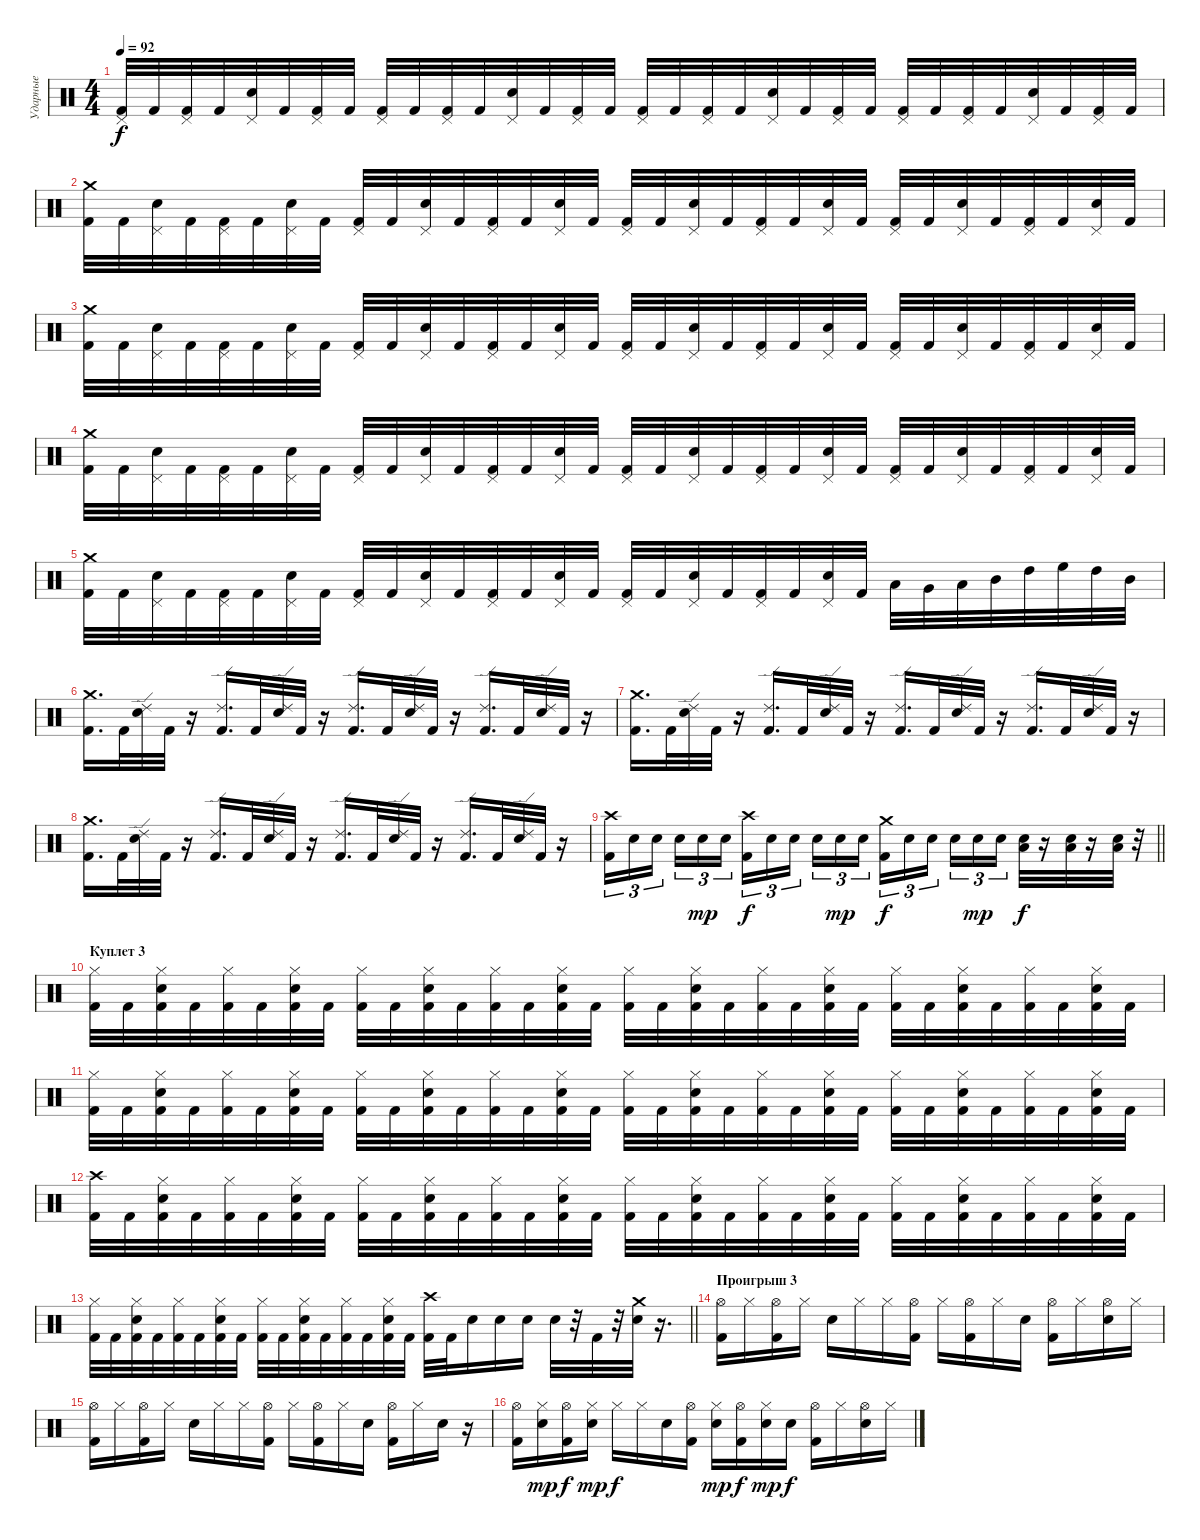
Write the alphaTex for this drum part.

\track ("Ударные" "Ударные") {instrument percussion}
\staff {score}
\articulation defaults
\ts (4 4)
\tempo 92
\clef neutral
\ks c
("Kick (hit) 2" "Pedal Hi-Hat (hit)").32{dy f} "Kick (hit) 2".32 ("Kick (hit) 2" "Pedal Hi-Hat (hit)").32 "Kick (hit) 2".32 ("Electric Snare (hit)" "Pedal Hi-Hat (hit)").32 "Kick (hit) 2".32 ("Kick (hit) 2" "Pedal Hi-Hat (hit)").32 "Kick (hit) 2".32 ("Kick (hit) 2" "Pedal Hi-Hat (hit)").32 "Kick (hit) 2".32 ("Kick (hit) 2" "Pedal Hi-Hat (hit)").32 "Kick (hit) 2".32 ("Electric Snare (hit)" "Pedal Hi-Hat (hit)").32 "Kick (hit) 2".32 ("Kick (hit) 2" "Pedal Hi-Hat (hit)").32 "Kick (hit) 2".32 ("Kick (hit) 2" "Pedal Hi-Hat (hit)").32 "Kick (hit) 2".32 ("Kick (hit) 2" "Pedal Hi-Hat (hit)").32 "Kick (hit) 2".32 ("Electric Snare (hit)" "Pedal Hi-Hat (hit)").32 "Kick (hit) 2".32 ("Kick (hit) 2" "Pedal Hi-Hat (hit)").32 "Kick (hit) 2".32 ("Kick (hit) 2" "Pedal Hi-Hat (hit)").32 "Kick (hit) 2".32 ("Kick (hit) 2" "Pedal Hi-Hat (hit)").32 "Kick (hit) 2".32 ("Electric Snare (hit)" "Pedal Hi-Hat (hit)").32 "Kick (hit) 2".32 ("Kick (hit) 2" "Pedal Hi-Hat (hit)").32 "Kick (hit) 2".32 |
("Crash medium (hit)" "Kick (hit) 2").32 "Kick (hit) 2".32 ("Pedal Hi-Hat (hit)" "Electric Snare (hit)").32 "Kick (hit) 2".32 ("Pedal Hi-Hat (hit)" "Kick (hit) 2").32 "Kick (hit) 2".32 ("Pedal Hi-Hat (hit)" "Electric Snare (hit)").32 "Kick (hit) 2".32 ("Kick (hit) 2" "Pedal Hi-Hat (hit)").32 "Kick (hit) 2".32 ("Electric Snare (hit)" "Pedal Hi-Hat (hit)").32 "Kick (hit) 2".32 ("Kick (hit) 2" "Pedal Hi-Hat (hit)").32 "Kick (hit) 2".32 ("Electric Snare (hit)" "Pedal Hi-Hat (hit)").32 "Kick (hit) 2".32 ("Kick (hit) 2" "Pedal Hi-Hat (hit)").32 "Kick (hit) 2".32 ("Electric Snare (hit)" "Pedal Hi-Hat (hit)").32 "Kick (hit) 2".32 ("Kick (hit) 2" "Pedal Hi-Hat (hit)").32 "Kick (hit) 2".32 ("Electric Snare (hit)" "Pedal Hi-Hat (hit)").32 "Kick (hit) 2".32 ("Kick (hit) 2" "Pedal Hi-Hat (hit)").32 "Kick (hit) 2".32 ("Electric Snare (hit)" "Pedal Hi-Hat (hit)").32 "Kick (hit) 2".32 ("Kick (hit) 2" "Pedal Hi-Hat (hit)").32 "Kick (hit) 2".32 ("Electric Snare (hit)" "Pedal Hi-Hat (hit)").32 "Kick (hit) 2".32 |
("Crash medium (hit)" "Kick (hit) 2").32 "Kick (hit) 2".32 ("Pedal Hi-Hat (hit)" "Electric Snare (hit)").32 "Kick (hit) 2".32 ("Pedal Hi-Hat (hit)" "Kick (hit) 2").32 "Kick (hit) 2".32 ("Pedal Hi-Hat (hit)" "Electric Snare (hit)").32 "Kick (hit) 2".32 ("Kick (hit) 2" "Pedal Hi-Hat (hit)").32 "Kick (hit) 2".32 ("Electric Snare (hit)" "Pedal Hi-Hat (hit)").32 "Kick (hit) 2".32 ("Kick (hit) 2" "Pedal Hi-Hat (hit)").32 "Kick (hit) 2".32 ("Electric Snare (hit)" "Pedal Hi-Hat (hit)").32 "Kick (hit) 2".32 ("Kick (hit) 2" "Pedal Hi-Hat (hit)").32 "Kick (hit) 2".32 ("Electric Snare (hit)" "Pedal Hi-Hat (hit)").32 "Kick (hit) 2".32 ("Kick (hit) 2" "Pedal Hi-Hat (hit)").32 "Kick (hit) 2".32 ("Electric Snare (hit)" "Pedal Hi-Hat (hit)").32 "Kick (hit) 2".32 ("Kick (hit) 2" "Pedal Hi-Hat (hit)").32 "Kick (hit) 2".32 ("Electric Snare (hit)" "Pedal Hi-Hat (hit)").32 "Kick (hit) 2".32 ("Kick (hit) 2" "Pedal Hi-Hat (hit)").32 "Kick (hit) 2".32 ("Electric Snare (hit)" "Pedal Hi-Hat (hit)").32 "Kick (hit) 2".32 |
("Crash medium (hit)" "Kick (hit) 2").32 "Kick (hit) 2".32 ("Pedal Hi-Hat (hit)" "Electric Snare (hit)").32 "Kick (hit) 2".32 ("Pedal Hi-Hat (hit)" "Kick (hit) 2").32 "Kick (hit) 2".32 ("Pedal Hi-Hat (hit)" "Electric Snare (hit)").32 "Kick (hit) 2".32 ("Kick (hit) 2" "Pedal Hi-Hat (hit)").32 "Kick (hit) 2".32 ("Electric Snare (hit)" "Pedal Hi-Hat (hit)").32 "Kick (hit) 2".32 ("Kick (hit) 2" "Pedal Hi-Hat (hit)").32 "Kick (hit) 2".32 ("Electric Snare (hit)" "Pedal Hi-Hat (hit)").32 "Kick (hit) 2".32 ("Kick (hit) 2" "Pedal Hi-Hat (hit)").32 "Kick (hit) 2".32 ("Electric Snare (hit)" "Pedal Hi-Hat (hit)").32 "Kick (hit) 2".32 ("Kick (hit) 2" "Pedal Hi-Hat (hit)").32 "Kick (hit) 2".32 ("Electric Snare (hit)" "Pedal Hi-Hat (hit)").32 "Kick (hit) 2".32 ("Kick (hit) 2" "Pedal Hi-Hat (hit)").32 "Kick (hit) 2".32 ("Electric Snare (hit)" "Pedal Hi-Hat (hit)").32 "Kick (hit) 2".32 ("Kick (hit) 2" "Pedal Hi-Hat (hit)").32 "Kick (hit) 2".32 ("Electric Snare (hit)" "Pedal Hi-Hat (hit)").32 "Kick (hit) 2".32 |
("Crash medium (hit)" "Kick (hit) 2").32 "Kick (hit) 2".32 ("Pedal Hi-Hat (hit)" "Electric Snare (hit)").32 "Kick (hit) 2".32 ("Pedal Hi-Hat (hit)" "Kick (hit) 2").32 "Kick (hit) 2".32 ("Pedal Hi-Hat (hit)" "Electric Snare (hit)").32 "Kick (hit) 2".32 ("Kick (hit) 2" "Pedal Hi-Hat (hit)").32 "Kick (hit) 2".32 ("Electric Snare (hit)" "Pedal Hi-Hat (hit)").32 "Kick (hit) 2".32 ("Kick (hit) 2" "Pedal Hi-Hat (hit)").32 "Kick (hit) 2".32 ("Electric Snare (hit)" "Pedal Hi-Hat (hit)").32 "Kick (hit) 2".32 ("Kick (hit) 2" "Pedal Hi-Hat (hit)").32 "Kick (hit) 2".32 ("Electric Snare (hit)" "Pedal Hi-Hat (hit)").32 "Kick (hit) 2".32 ("Kick (hit) 2" "Pedal Hi-Hat (hit)").32 "Kick (hit) 2".32 ("Electric Snare (hit)" "Pedal Hi-Hat (hit)").32 "Kick (hit) 2".32 "Low Floor Tom (hit)".32 "Very Low Tom (hit)".32 "Low Tom (hit)".32 "Mid Tom (hit)".32 "High Tom (hit)".32 "High Floor Tom (hit)".32 "High Tom (hit)".32 "Mid Tom (hit)".32 |
("Crash medium (hit)" "Kick (hit) 2").16{d} "Kick (hit) 2".32 ("Ride (edge) 2" "Electric Snare (hit)").32 "Kick (hit) 2".32 r.16 ("Ride (edge) 2" "Kick (hit) 2").16{d} "Kick (hit) 2".32 ("Ride (edge) 2" "Electric Snare (hit)").32 "Kick (hit) 2".32 r.16 ("Ride (edge) 2" "Kick (hit) 2").16{d} "Kick (hit) 2".32 ("Ride (edge) 2" "Electric Snare (hit)").32 "Kick (hit) 2".32 r.16 ("Ride (edge) 2" "Kick (hit) 2").16{d} "Kick (hit) 2".32 ("Ride (edge) 2" "Electric Snare (hit)").32 "Kick (hit) 2".32 r.16 |
("Crash medium (hit)" "Kick (hit) 2").16{d} "Kick (hit) 2".32 ("Ride (edge) 2" "Electric Snare (hit)").32 "Kick (hit) 2".32 r.16 ("Ride (edge) 2" "Kick (hit) 2").16{d} "Kick (hit) 2".32 ("Ride (edge) 2" "Electric Snare (hit)").32 "Kick (hit) 2".32 r.16 ("Ride (edge) 2" "Kick (hit) 2").16{d} "Kick (hit) 2".32 ("Ride (edge) 2" "Electric Snare (hit)").32 "Kick (hit) 2".32 r.16 ("Ride (edge) 2" "Kick (hit) 2").16{d} "Kick (hit) 2".32 ("Ride (edge) 2" "Electric Snare (hit)").32 "Kick (hit) 2".32 r.16 |
("Crash medium (hit)" "Kick (hit) 2").16{d} "Kick (hit) 2".32 ("Ride (edge) 2" "Electric Snare (hit)").32 "Kick (hit) 2".32 r.16 ("Ride (edge) 2" "Kick (hit) 2").16{d} "Kick (hit) 2".32 ("Ride (edge) 2" "Electric Snare (hit)").32 "Kick (hit) 2".32 r.16 ("Ride (edge) 2" "Kick (hit) 2").16{d} "Kick (hit) 2".32 ("Ride (edge) 2" "Electric Snare (hit)").32 "Kick (hit) 2".32 r.16 ("Ride (edge) 2" "Kick (hit) 2").16{d} "Kick (hit) 2".32 ("Ride (edge) 2" "Electric Snare (hit)").32 "Kick (hit) 2".32 r.16 |
\barLineRight lightlight
("Kick (hit) 2" "Crash high (hit)").16{tu (3 2)} "Electric Snare (hit)".16{tu (3 2)} "Electric Snare (hit)".16{tu (3 2) beam splitsecondary} "Electric Snare (hit)".16{tu (3 2)} "Electric Snare (hit)".16{tu (3 2) dy mp} "Electric Snare (hit)".16{tu (3 2)} ("Crash high (hit)" "Kick (hit) 2").16{tu (3 2) dy f} "Electric Snare (hit)".16{tu (3 2)} "Electric Snare (hit)".16{tu (3 2) beam splitsecondary} "Electric Snare (hit)".16{tu (3 2)} "Electric Snare (hit)".16{tu (3 2) dy mp} "Electric Snare (hit)".16{tu (3 2)} ("Crash medium (hit)" "Kick (hit) 2").16{tu (3 2) dy f} "Electric Snare (hit)".16{tu (3 2)} "Electric Snare (hit)".16{tu (3 2) beam splitsecondary} "Electric Snare (hit)".16{tu (3 2)} "Electric Snare (hit)".16{tu (3 2) dy mp} "Electric Snare (hit)".16{tu (3 2)} ("Low Tom (hit)" "Electric Snare (hit)").32{dy f} r.16 ("Low Tom (hit)" "Electric Snare (hit)").32 r.16 ("Low Tom (hit)" "Electric Snare (hit)").32 r.32 |
\section ("" "Куплет 3")
("Kick (hit) 2" "Hi-Hat (closed)").32 "Kick (hit) 2".32 ("Kick (hit) 2" "Hi-Hat (closed)" "Electric Snare (hit)").32 "Kick (hit) 2".32 ("Kick (hit) 2" "Hi-Hat (closed)").32 "Kick (hit) 2".32 ("Kick (hit) 2" "Hi-Hat (closed)" "Electric Snare (hit)").32 "Kick (hit) 2".32 ("Kick (hit) 2" "Hi-Hat (closed)").32 "Kick (hit) 2".32 ("Kick (hit) 2" "Hi-Hat (closed)" "Electric Snare (hit)").32 "Kick (hit) 2".32 ("Kick (hit) 2" "Hi-Hat (closed)").32 "Kick (hit) 2".32 ("Kick (hit) 2" "Hi-Hat (closed)" "Electric Snare (hit)").32 "Kick (hit) 2".32 ("Kick (hit) 2" "Hi-Hat (closed)").32 "Kick (hit) 2".32 ("Kick (hit) 2" "Hi-Hat (closed)" "Electric Snare (hit)").32 "Kick (hit) 2".32 ("Kick (hit) 2" "Hi-Hat (closed)").32 "Kick (hit) 2".32 ("Kick (hit) 2" "Hi-Hat (closed)" "Electric Snare (hit)").32 "Kick (hit) 2".32 ("Kick (hit) 2" "Hi-Hat (closed)").32 "Kick (hit) 2".32 ("Kick (hit) 2" "Hi-Hat (closed)" "Electric Snare (hit)").32 "Kick (hit) 2".32 ("Kick (hit) 2" "Hi-Hat (closed)").32 "Kick (hit) 2".32 ("Kick (hit) 2" "Hi-Hat (closed)" "Electric Snare (hit)").32 "Kick (hit) 2".32 |
("Kick (hit) 2" "Hi-Hat (closed)").32 "Kick (hit) 2".32 ("Kick (hit) 2" "Hi-Hat (closed)" "Electric Snare (hit)").32 "Kick (hit) 2".32 ("Kick (hit) 2" "Hi-Hat (closed)").32 "Kick (hit) 2".32 ("Kick (hit) 2" "Hi-Hat (closed)" "Electric Snare (hit)").32 "Kick (hit) 2".32 ("Kick (hit) 2" "Hi-Hat (closed)").32 "Kick (hit) 2".32 ("Kick (hit) 2" "Hi-Hat (closed)" "Electric Snare (hit)").32 "Kick (hit) 2".32 ("Kick (hit) 2" "Hi-Hat (closed)").32 "Kick (hit) 2".32 ("Kick (hit) 2" "Hi-Hat (closed)" "Electric Snare (hit)").32 "Kick (hit) 2".32 ("Kick (hit) 2" "Hi-Hat (closed)").32 "Kick (hit) 2".32 ("Kick (hit) 2" "Hi-Hat (closed)" "Electric Snare (hit)").32 "Kick (hit) 2".32 ("Kick (hit) 2" "Hi-Hat (closed)").32 "Kick (hit) 2".32 ("Kick (hit) 2" "Hi-Hat (closed)" "Electric Snare (hit)").32 "Kick (hit) 2".32 ("Kick (hit) 2" "Hi-Hat (closed)").32 "Kick (hit) 2".32 ("Kick (hit) 2" "Hi-Hat (closed)" "Electric Snare (hit)").32 "Kick (hit) 2".32 ("Kick (hit) 2" "Hi-Hat (closed)").32 "Kick (hit) 2".32 ("Kick (hit) 2" "Hi-Hat (closed)" "Electric Snare (hit)").32 "Kick (hit) 2".32 |
("Kick (hit) 2" "Crash high (hit)").32 "Kick (hit) 2".32 ("Kick (hit) 2" "Hi-Hat (closed)" "Electric Snare (hit)").32 "Kick (hit) 2".32 ("Kick (hit) 2" "Hi-Hat (closed)").32 "Kick (hit) 2".32 ("Kick (hit) 2" "Hi-Hat (closed)" "Electric Snare (hit)").32 "Kick (hit) 2".32 ("Kick (hit) 2" "Hi-Hat (closed)").32 "Kick (hit) 2".32 ("Kick (hit) 2" "Hi-Hat (closed)" "Electric Snare (hit)").32 "Kick (hit) 2".32 ("Kick (hit) 2" "Hi-Hat (closed)").32 "Kick (hit) 2".32 ("Kick (hit) 2" "Hi-Hat (closed)" "Electric Snare (hit)").32 "Kick (hit) 2".32 ("Kick (hit) 2" "Hi-Hat (closed)").32 "Kick (hit) 2".32 ("Kick (hit) 2" "Hi-Hat (closed)" "Electric Snare (hit)").32 "Kick (hit) 2".32 ("Kick (hit) 2" "Hi-Hat (closed)").32 "Kick (hit) 2".32 ("Kick (hit) 2" "Hi-Hat (closed)" "Electric Snare (hit)").32 "Kick (hit) 2".32 ("Kick (hit) 2" "Hi-Hat (closed)").32 "Kick (hit) 2".32 ("Kick (hit) 2" "Hi-Hat (closed)" "Electric Snare (hit)").32 "Kick (hit) 2".32 ("Kick (hit) 2" "Hi-Hat (closed)").32 "Kick (hit) 2".32 ("Kick (hit) 2" "Hi-Hat (closed)" "Electric Snare (hit)").32 "Kick (hit) 2".32 |
\barLineRight lightlight
("Kick (hit) 2" "Hi-Hat (closed)").32 "Kick (hit) 2".32 ("Kick (hit) 2" "Hi-Hat (closed)" "Electric Snare (hit)").32 "Kick (hit) 2".32 ("Kick (hit) 2" "Hi-Hat (closed)").32 "Kick (hit) 2".32 ("Kick (hit) 2" "Hi-Hat (closed)" "Electric Snare (hit)").32 "Kick (hit) 2".32 ("Kick (hit) 2" "Hi-Hat (closed)").32 "Kick (hit) 2".32 ("Kick (hit) 2" "Hi-Hat (closed)" "Electric Snare (hit)").32 "Kick (hit) 2".32 ("Kick (hit) 2" "Hi-Hat (closed)").32 "Kick (hit) 2".32 ("Kick (hit) 2" "Hi-Hat (closed)" "Electric Snare (hit)").32 "Kick (hit) 2".32 ("Kick (hit) 2" "Crash high (hit)").32 "Kick (hit) 2".32 "Electric Snare (hit)".16 "Electric Snare (hit)".16 "Electric Snare (hit)".16 "Electric Snare (hit)".32 r.32 "Kick (hit) 2".32 r.32 ("Crash medium (hit)" "Electric Snare (hit)").32 r.16{d} |
\section ("" "Проигрыш 3")
("Kick (hit) 2" "Hi-Hat (open)").16 "Hi-Hat (closed)".16 ("Hi-Hat (open)" "Kick (hit) 2").16 "Hi-Hat (closed)".16 "Electric Snare (hit)".16 "Hi-Hat (closed)".16 "Hi-Hat (closed)".16 ("Kick (hit) 2" "Hi-Hat (open)").16 "Hi-Hat (closed)".16 ("Kick (hit) 2" "Hi-Hat (open)").16 "Hi-Hat (closed)".16 "Electric Snare (hit)".16 ("Kick (hit) 2" "Hi-Hat (open)").16 "Hi-Hat (closed)".16 ("Electric Snare (hit)" "Hi-Hat (open)").16 "Hi-Hat (closed)".16 |
("Kick (hit) 2" "Hi-Hat (open)").16 "Hi-Hat (closed)".16 ("Hi-Hat (open)" "Kick (hit) 2").16 "Hi-Hat (closed)".16 "Electric Snare (hit)".16 "Hi-Hat (closed)".16 "Hi-Hat (closed)".16 ("Kick (hit) 2" "Hi-Hat (open)").16 "Hi-Hat (closed)".16 ("Kick (hit) 2" "Hi-Hat (open)").16 "Hi-Hat (closed)".16 "Electric Snare (hit)".16 ("Kick (hit) 2" "Hi-Hat (open)").16 "Hi-Hat (closed)".16 "Electric Snare (hit)".16 r.16 |
("Kick (hit) 2" "Hi-Hat (open)").16 ("Snare (hit) 2" "Hi-Hat (closed)").16{dy mp} ("Hi-Hat (open)" "Kick (hit) 2").16{dy f} ("Snare (hit) 2" "Hi-Hat (closed)").16{dy mp} "Hi-Hat (closed)".16{dy f} "Hi-Hat (closed)".16 "Electric Snare (hit)".16 ("Kick (hit) 2" "Hi-Hat (open)").16 ("Snare (hit) 2" "Hi-Hat (closed)").16{dy mp} ("Kick (hit) 2" "Hi-Hat (open)").16{dy f} ("Snare (hit) 2" "Hi-Hat (closed)").16{dy mp} "Electric Snare (hit)".16{dy f} ("Kick (hit) 2" "Hi-Hat (open)").16 "Hi-Hat (closed)".16 ("Electric Snare (hit)" "Hi-Hat (open)").16 "Hi-Hat (closed)".16
